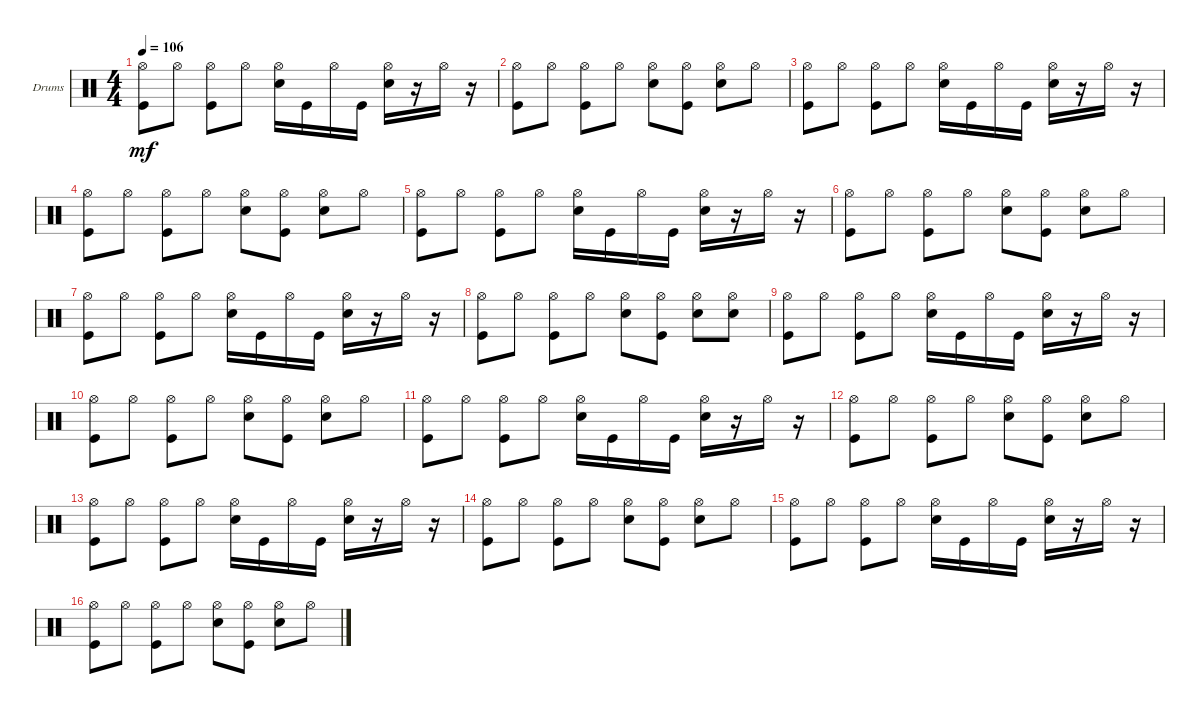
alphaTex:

\defaultSystemsLayout 4
\bracketExtendMode groupsimilarinstruments
\firstSystemTrackNameOrientation horizontal
\otherSystemsTrackNameOrientation horizontal
\track ("Drumkit" "Drums") {instrument percussion}
\staff {score}
\articulation defaults
\ts (4 4)
\tempo 106
\clef neutral
\ks c
("Kick (hit)" "Hi-Hat (open)").8{dy mf} "Hi-Hat (open)".8 ("Kick (hit)" "Hi-Hat (open)").8 "Hi-Hat (open)".8 ("Snare (hit) 2" "Hi-Hat (open)").16 "Kick (hit)".16 "Hi-Hat (open)".16 "Kick (hit)".16 ("Snare (hit) 2" "Hi-Hat (open)").16 r.16 "Hi-Hat (open)".16 r.16 |
("Kick (hit)" "Hi-Hat (open)").8 "Hi-Hat (open)".8 ("Kick (hit)" "Hi-Hat (open)").8 "Hi-Hat (open)".8 ("Snare (hit) 2" "Hi-Hat (open)").8 ("Kick (hit)" "Hi-Hat (open)").8 ("Snare (hit) 2" "Hi-Hat (open)").8 "Hi-Hat (open)".8 |
("Kick (hit)" "Hi-Hat (open)").8 "Hi-Hat (open)".8 ("Kick (hit)" "Hi-Hat (open)").8 "Hi-Hat (open)".8 ("Snare (hit) 2" "Hi-Hat (open)").16 "Kick (hit)".16 "Hi-Hat (open)".16 "Kick (hit)".16 ("Snare (hit) 2" "Hi-Hat (open)").16 r.16 "Hi-Hat (open)".16 r.16 |
("Kick (hit)" "Hi-Hat (open)").8 "Hi-Hat (open)".8 ("Kick (hit)" "Hi-Hat (open)").8 "Hi-Hat (open)".8 ("Snare (hit) 2" "Hi-Hat (open)").8 ("Kick (hit)" "Hi-Hat (open)").8 ("Snare (hit) 2" "Hi-Hat (open)").8 "Hi-Hat (open)".8 |
("Kick (hit)" "Hi-Hat (open)").8 "Hi-Hat (open)".8 ("Kick (hit)" "Hi-Hat (open)").8 "Hi-Hat (open)".8 ("Snare (hit) 2" "Hi-Hat (open)").16 "Kick (hit)".16 "Hi-Hat (open)".16 "Kick (hit)".16 ("Snare (hit) 2" "Hi-Hat (open)").16 r.16 "Hi-Hat (open)".16 r.16 |
("Kick (hit)" "Hi-Hat (open)").8 "Hi-Hat (open)".8 ("Kick (hit)" "Hi-Hat (open)").8 "Hi-Hat (open)".8 ("Snare (hit) 2" "Hi-Hat (open)").8 ("Kick (hit)" "Hi-Hat (open)").8 ("Snare (hit) 2" "Hi-Hat (open)").8 "Hi-Hat (open)".8 |
("Kick (hit)" "Hi-Hat (open)").8 "Hi-Hat (open)".8 ("Kick (hit)" "Hi-Hat (open)").8 "Hi-Hat (open)".8 ("Snare (hit) 2" "Hi-Hat (open)").16 "Kick (hit)".16 "Hi-Hat (open)".16 "Kick (hit)".16 ("Snare (hit) 2" "Hi-Hat (open)").16 r.16 "Hi-Hat (open)".16 r.16 |
("Kick (hit)" "Hi-Hat (open)").8 "Hi-Hat (open)".8 ("Kick (hit)" "Hi-Hat (open)").8 "Hi-Hat (open)".8 ("Snare (hit) 2" "Hi-Hat (open)").8 ("Kick (hit)" "Hi-Hat (open)").8 ("Snare (hit) 2" "Hi-Hat (open)").8 ("Hi-Hat (open)" "Snare (hit) 2").8 |
("Kick (hit)" "Hi-Hat (open)").8 "Hi-Hat (open)".8 ("Kick (hit)" "Hi-Hat (open)").8 "Hi-Hat (open)".8 ("Snare (hit) 2" "Hi-Hat (open)").16 "Kick (hit)".16 "Hi-Hat (open)".16 "Kick (hit)".16 ("Snare (hit) 2" "Hi-Hat (open)").16 r.16 "Hi-Hat (open)".16 r.16 |
("Kick (hit)" "Hi-Hat (open)").8 "Hi-Hat (open)".8 ("Kick (hit)" "Hi-Hat (open)").8 "Hi-Hat (open)".8 ("Snare (hit) 2" "Hi-Hat (open)").8 ("Kick (hit)" "Hi-Hat (open)").8 ("Snare (hit) 2" "Hi-Hat (open)").8 "Hi-Hat (open)".8 |
("Kick (hit)" "Hi-Hat (open)").8 "Hi-Hat (open)".8 ("Kick (hit)" "Hi-Hat (open)").8 "Hi-Hat (open)".8 ("Snare (hit) 2" "Hi-Hat (open)").16 "Kick (hit)".16 "Hi-Hat (open)".16 "Kick (hit)".16 ("Snare (hit) 2" "Hi-Hat (open)").16 r.16 "Hi-Hat (open)".16 r.16 |
("Kick (hit)" "Hi-Hat (open)").8 "Hi-Hat (open)".8 ("Kick (hit)" "Hi-Hat (open)").8 "Hi-Hat (open)".8 ("Snare (hit) 2" "Hi-Hat (open)").8 ("Kick (hit)" "Hi-Hat (open)").8 ("Snare (hit) 2" "Hi-Hat (open)").8 "Hi-Hat (open)".8 |
("Kick (hit)" "Hi-Hat (open)").8 "Hi-Hat (open)".8 ("Kick (hit)" "Hi-Hat (open)").8 "Hi-Hat (open)".8 ("Snare (hit) 2" "Hi-Hat (open)").16 "Kick (hit)".16 "Hi-Hat (open)".16 "Kick (hit)".16 ("Snare (hit) 2" "Hi-Hat (open)").16 r.16 "Hi-Hat (open)".16 r.16 |
("Kick (hit)" "Hi-Hat (open)").8 "Hi-Hat (open)".8 ("Kick (hit)" "Hi-Hat (open)").8 "Hi-Hat (open)".8 ("Snare (hit) 2" "Hi-Hat (open)").8 ("Kick (hit)" "Hi-Hat (open)").8 ("Snare (hit) 2" "Hi-Hat (open)").8 "Hi-Hat (open)".8 |
("Kick (hit)" "Hi-Hat (open)").8 "Hi-Hat (open)".8 ("Kick (hit)" "Hi-Hat (open)").8 "Hi-Hat (open)".8 ("Snare (hit) 2" "Hi-Hat (open)").16 "Kick (hit)".16 "Hi-Hat (open)".16 "Kick (hit)".16 ("Snare (hit) 2" "Hi-Hat (open)").16 r.16 "Hi-Hat (open)".16 r.16 |
("Kick (hit)" "Hi-Hat (open)").8 "Hi-Hat (open)".8 ("Kick (hit)" "Hi-Hat (open)").8 "Hi-Hat (open)".8 ("Snare (hit) 2" "Hi-Hat (open)").8 ("Kick (hit)" "Hi-Hat (open)").8 ("Snare (hit) 2" "Hi-Hat (open)").8 "Hi-Hat (open)".8
